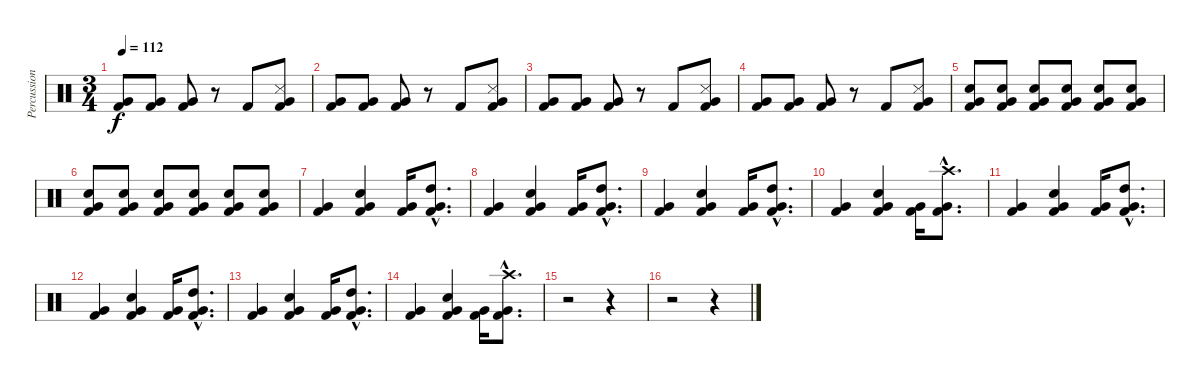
\track ("Percussions" "Percussion") {instrument percussion}
\staff {score}
\articulation defaults
\ts (3 4)
\tempo 112
\clef neutral
\ks c
("Kick (hit) 2" "Very Low Tom (hit)").8{dy f} ("Kick (hit) 2" "Very Low Tom (hit)").8 ("Kick (hit) 2" "Very Low Tom (hit)").8 r.8 "Kick (hit) 2".8 ("Kick (hit) 2" "Very Low Tom (hit)" "Snare (side stick) 3").8 |
("Kick (hit) 2" "Very Low Tom (hit)").8 ("Kick (hit) 2" "Very Low Tom (hit)").8 ("Kick (hit) 2" "Very Low Tom (hit)").8 r.8 "Kick (hit) 2".8 ("Kick (hit) 2" "Very Low Tom (hit)" "Snare (side stick) 3").8 |
("Kick (hit) 2" "Very Low Tom (hit)").8 ("Kick (hit) 2" "Very Low Tom (hit)").8 ("Kick (hit) 2" "Very Low Tom (hit)").8 r.8 "Kick (hit) 2".8 ("Kick (hit) 2" "Very Low Tom (hit)" "Snare (side stick) 3").8 |
("Kick (hit) 2" "Very Low Tom (hit)").8 ("Kick (hit) 2" "Very Low Tom (hit)").8 ("Kick (hit) 2" "Very Low Tom (hit)").8 r.8 "Kick (hit) 2".8 ("Kick (hit) 2" "Very Low Tom (hit)" "Snare (side stick) 3").8 |
("Kick (hit) 2" "Very Low Tom (hit)" "Electric Snare (hit)").8 ("Kick (hit) 2" "Very Low Tom (hit)" "Electric Snare (hit)").8 ("Kick (hit) 2" "Very Low Tom (hit)" "Electric Snare (hit)").8 ("Kick (hit) 2" "Very Low Tom (hit)" "Electric Snare (hit)").8 ("Kick (hit) 2" "Very Low Tom (hit)" "Electric Snare (hit)").8 ("Kick (hit) 2" "Very Low Tom (hit)" "Electric Snare (hit)").8 |
("Kick (hit) 2" "Very Low Tom (hit)" "Electric Snare (hit)").8 ("Kick (hit) 2" "Very Low Tom (hit)" "Electric Snare (hit)").8 ("Kick (hit) 2" "Very Low Tom (hit)" "Electric Snare (hit)").8 ("Kick (hit) 2" "Very Low Tom (hit)" "Electric Snare (hit)").8 ("Kick (hit) 2" "Very Low Tom (hit)" "Electric Snare (hit)").8 ("Kick (hit) 2" "Very Low Tom (hit)" "Electric Snare (hit)").8 |
("Kick (hit) 2" "Very Low Tom (hit)").4 ("Kick (hit) 2" "Very Low Tom (hit)" "Electric Snare (hit)").4 ("Kick (hit) 2" "Very Low Tom (hit)").16 ("High Tom (hit)"{hac} "Kick (hit) 2"{hac} "Very Low Tom (hit)"{hac}).8{d} |
("Kick (hit) 2" "Very Low Tom (hit)").4 ("Kick (hit) 2" "Very Low Tom (hit)" "Electric Snare (hit)").4 ("Kick (hit) 2" "Very Low Tom (hit)").16 ("High Tom (hit)"{hac} "Kick (hit) 2"{hac} "Very Low Tom (hit)"{hac}).8{d} |
("Kick (hit) 2" "Very Low Tom (hit)").4 ("Kick (hit) 2" "Very Low Tom (hit)" "Electric Snare (hit)").4 ("Kick (hit) 2" "Very Low Tom (hit)").16 ("High Tom (hit)"{hac} "Kick (hit) 2"{hac} "Very Low Tom (hit)"{hac}).8{d} |
("Kick (hit) 2" "Very Low Tom (hit)").4 ("Kick (hit) 2" "Very Low Tom (hit)" "Electric Snare (hit)").4 ("Kick (hit) 2" "Very Low Tom (hit)").16 ("Crash high (hit)"{hac} "Kick (hit) 2"{hac} "Very Low Tom (hit)"{hac}).8{d} |
("Kick (hit) 2" "Very Low Tom (hit)").4 ("Kick (hit) 2" "Very Low Tom (hit)" "Electric Snare (hit)").4 ("Kick (hit) 2" "Very Low Tom (hit)").16 ("High Tom (hit)"{hac} "Kick (hit) 2"{hac} "Very Low Tom (hit)"{hac}).8{d} |
("Kick (hit) 2" "Very Low Tom (hit)").4 ("Kick (hit) 2" "Very Low Tom (hit)" "Electric Snare (hit)").4 ("Kick (hit) 2" "Very Low Tom (hit)").16 ("High Tom (hit)"{hac} "Kick (hit) 2"{hac} "Very Low Tom (hit)"{hac}).8{d} |
("Kick (hit) 2" "Very Low Tom (hit)").4 ("Kick (hit) 2" "Very Low Tom (hit)" "Electric Snare (hit)").4 ("Kick (hit) 2" "Very Low Tom (hit)").16 ("High Tom (hit)"{hac} "Kick (hit) 2"{hac} "Very Low Tom (hit)"{hac}).8{d} |
("Kick (hit) 2" "Very Low Tom (hit)").4 ("Kick (hit) 2" "Very Low Tom (hit)" "Electric Snare (hit)").4 ("Kick (hit) 2" "Very Low Tom (hit)").16 ("Crash high (hit)"{hac} "Kick (hit) 2"{hac} "Very Low Tom (hit)"{hac}).8{d} |
r.2 r.4 |
r.2 r.4
